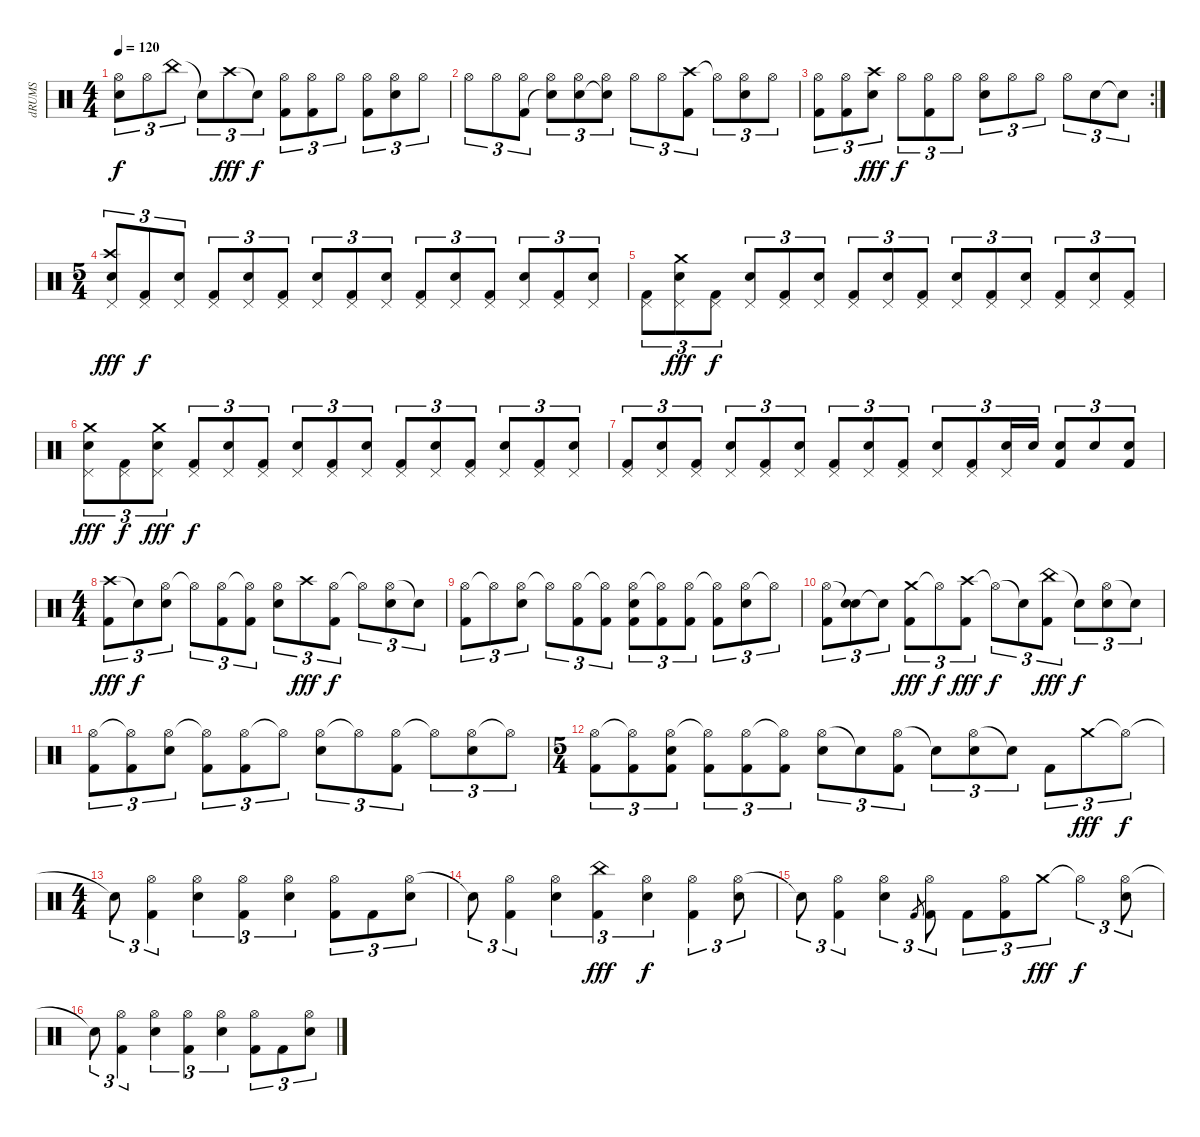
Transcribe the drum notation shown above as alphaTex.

\track ("dRUMS" "dRUMS") {instrument percussion}
\staff {score}
\articulation defaults
\ts (4 4)
\tempo 120
\clef neutral
\ks c
("Hi-Hat (open)" "Electric Snare (hit)").8{tu (3 2) dy f} "Hi-Hat (open)".8{tu (3 2)} "China (hit)".8{tu (3 2)} "Snare (hit)"{t}.8{tu (3 2)} "Crash high (hit)".8{tu (3 2) dy fff} "Snare (hit)"{t}.8{tu (3 2) dy f} ("Hi-Hat (open)" "Kick (hit) 2").8{tu (3 2)} ("Hi-Hat (open)" "Kick (hit) 2").8{tu (3 2)} "Hi-Hat (open)".8{tu (3 2)} ("Hi-Hat (open)" "Kick (hit) 2").8{tu (3 2)} ("Hi-Hat (open)" "Electric Snare (hit)").8{tu (3 2)} "Hi-Hat (open)".8{tu (3 2)} |
"Hi-Hat (open)".8{tu (3 2)} "Hi-Hat (open)".8{tu (3 2)} ("Hi-Hat (open)" "Kick (hit) 2").8{tu (3 2)} ("Hi-Hat (open)" "Snare (hit)"{t}).8{tu (3 2)} ("Hi-Hat (open)" "Electric Snare (hit)").8{tu (3 2)} ("Hi-Hat (open)" "Snare (hit)"{t}).8{tu (3 2)} "Hi-Hat (open)".8{tu (3 2)} "Hi-Hat (open)".8{tu (3 2)} ("Crash high (hit)" "Kick (hit) 2").8{tu (3 2)} "Hi-Hat (open)"{t}.8{tu (3 2)} ("Hi-Hat (open)" "Electric Snare (hit)").8{tu (3 2)} "Hi-Hat (open)".8{tu (3 2)} |
\rc 2
("Hi-Hat (open)" "Kick (hit) 2").8{tu (3 2)} ("Hi-Hat (open)" "Kick (hit) 2").8{tu (3 2)} ("Crash high (hit)" "Electric Snare (hit)").8{tu (3 2) dy fff} "Hi-Hat (open)".8{tu (3 2) dy f} ("Hi-Hat (open)" "Kick (hit) 2").8{tu (3 2)} "Hi-Hat (open)".8{tu (3 2)} ("Hi-Hat (open)" "Electric Snare (hit)").8{tu (3 2)} "Hi-Hat (open)".8{tu (3 2)} "Hi-Hat (open)".8{tu (3 2)} "Hi-Hat (open)".8{tu (3 2)} "Electric Snare (hit)".8{tu (3 2)} "Snare (hit)"{t}.8{tu (3 2)} |
\ts (5 4)
("Crash high (hit)" "Electric Snare (hit)" "Pedal Hi-Hat (hit)").8{tu (3 2) dy fff} ("Pedal Hi-Hat (hit)" "Kick (hit) 2").8{tu (3 2) dy f} ("Electric Snare (hit)" "Pedal Hi-Hat (hit)").8{tu (3 2)} ("Pedal Hi-Hat (hit)" "Kick (hit) 2").8{tu (3 2)} ("Electric Snare (hit)" "Pedal Hi-Hat (hit)").8{tu (3 2)} ("Pedal Hi-Hat (hit)" "Kick (hit) 2").8{tu (3 2)} ("Electric Snare (hit)" "Pedal Hi-Hat (hit)").8{tu (3 2)} ("Pedal Hi-Hat (hit)" "Kick (hit) 2").8{tu (3 2)} ("Electric Snare (hit)" "Pedal Hi-Hat (hit)").8{tu (3 2)} ("Pedal Hi-Hat (hit)" "Kick (hit) 2").8{tu (3 2)} ("Electric Snare (hit)" "Pedal Hi-Hat (hit)").8{tu (3 2)} ("Pedal Hi-Hat (hit)" "Kick (hit) 2").8{tu (3 2)} ("Electric Snare (hit)" "Pedal Hi-Hat (hit)").8{tu (3 2)} ("Pedal Hi-Hat (hit)" "Kick (hit) 2").8{tu (3 2)} ("Electric Snare (hit)" "Pedal Hi-Hat (hit)").8{tu (3 2)} |
("Pedal Hi-Hat (hit)" "Kick (hit) 2").8{tu (3 2)} ("Crash medium (hit)" "Electric Snare (hit)" "Pedal Hi-Hat (hit)").8{tu (3 2) dy fff} ("Pedal Hi-Hat (hit)" "Kick (hit) 2").8{tu (3 2) dy f} ("Electric Snare (hit)" "Pedal Hi-Hat (hit)").8{tu (3 2)} ("Pedal Hi-Hat (hit)" "Kick (hit) 2").8{tu (3 2)} ("Electric Snare (hit)" "Pedal Hi-Hat (hit)").8{tu (3 2)} ("Pedal Hi-Hat (hit)" "Kick (hit) 2").8{tu (3 2)} ("Electric Snare (hit)" "Pedal Hi-Hat (hit)").8{tu (3 2)} ("Pedal Hi-Hat (hit)" "Kick (hit) 2").8{tu (3 2)} ("Electric Snare (hit)" "Pedal Hi-Hat (hit)").8{tu (3 2)} ("Pedal Hi-Hat (hit)" "Kick (hit) 2").8{tu (3 2)} ("Electric Snare (hit)" "Pedal Hi-Hat (hit)").8{tu (3 2)} ("Pedal Hi-Hat (hit)" "Kick (hit) 2").8{tu (3 2)} ("Electric Snare (hit)" "Pedal Hi-Hat (hit)").8{tu (3 2)} ("Pedal Hi-Hat (hit)" "Kick (hit) 2").8{tu (3 2)} |
("Crash medium (hit)" "Electric Snare (hit)" "Pedal Hi-Hat (hit)").8{tu (3 2) dy fff} ("Pedal Hi-Hat (hit)" "Kick (hit) 2").8{tu (3 2) dy f} ("Crash medium (hit)" "Electric Snare (hit)" "Pedal Hi-Hat (hit)").8{tu (3 2) dy fff} ("Pedal Hi-Hat (hit)" "Kick (hit) 2").8{tu (3 2) dy f} ("Electric Snare (hit)" "Pedal Hi-Hat (hit)").8{tu (3 2)} ("Pedal Hi-Hat (hit)" "Kick (hit) 2").8{tu (3 2)} ("Electric Snare (hit)" "Pedal Hi-Hat (hit)").8{tu (3 2)} ("Pedal Hi-Hat (hit)" "Kick (hit) 2").8{tu (3 2)} ("Electric Snare (hit)" "Pedal Hi-Hat (hit)").8{tu (3 2)} ("Pedal Hi-Hat (hit)" "Kick (hit) 2").8{tu (3 2)} ("Electric Snare (hit)" "Pedal Hi-Hat (hit)").8{tu (3 2)} ("Pedal Hi-Hat (hit)" "Kick (hit) 2").8{tu (3 2)} ("Electric Snare (hit)" "Pedal Hi-Hat (hit)").8{tu (3 2)} ("Pedal Hi-Hat (hit)" "Kick (hit) 2").8{tu (3 2)} ("Electric Snare (hit)" "Pedal Hi-Hat (hit)").8{tu (3 2)} |
("Pedal Hi-Hat (hit)" "Kick (hit) 2").8{tu (3 2)} ("Electric Snare (hit)" "Pedal Hi-Hat (hit)").8{tu (3 2)} ("Pedal Hi-Hat (hit)" "Kick (hit) 2").8{tu (3 2)} ("Electric Snare (hit)" "Pedal Hi-Hat (hit)").8{tu (3 2)} ("Pedal Hi-Hat (hit)" "Kick (hit) 2").8{tu (3 2)} ("Electric Snare (hit)" "Pedal Hi-Hat (hit)").8{tu (3 2)} ("Pedal Hi-Hat (hit)" "Kick (hit) 2").8{tu (3 2)} ("Electric Snare (hit)" "Pedal Hi-Hat (hit)").8{tu (3 2)} ("Pedal Hi-Hat (hit)" "Kick (hit) 2").8{tu (3 2)} ("Electric Snare (hit)" "Pedal Hi-Hat (hit)").8{tu (3 2)} ("Pedal Hi-Hat (hit)" "Kick (hit) 2").8{tu (3 2)} ("Electric Snare (hit)" "Pedal Hi-Hat (hit)").16{tu (3 2)} "Electric Snare (hit)".16{tu (3 2)} ("Electric Snare (hit)" "Kick (hit) 2").8{tu (3 2)} "Electric Snare (hit)".8{tu (3 2)} ("Electric Snare (hit)" "Kick (hit) 2").8{tu (3 2)} |
\ts (4 4)
("Crash high (hit)" "Kick (hit) 2").8{tu (3 2) dy fff} "Snare (hit)"{t}.8{tu (3 2) dy f} ("Hi-Hat (open)" "Electric Snare (hit)").8{tu (3 2)} "Hi-Hat (open)"{t}.8{tu (3 2)} ("Hi-Hat (open)" "Kick (hit) 2").8{tu (3 2)} ("Hi-Hat (open)"{t} "Kick (hit) 2").8{tu (3 2)} ("Hi-Hat (open)" "Electric Snare (hit)").8{tu (3 2)} "Crash high (hit)".8{tu (3 2) dy fff} ("Hi-Hat (open)" "Kick (hit) 2").8{tu (3 2) dy f} "Hi-Hat (open)"{t}.8{tu (3 2)} ("Hi-Hat (open)" "Electric Snare (hit)").8{tu (3 2)} "Snare (hit)"{t}.8{tu (3 2)} |
("Hi-Hat (open)" "Kick (hit) 2").8{tu (3 2)} "Hi-Hat (open)"{t}.8{tu (3 2)} ("Hi-Hat (open)" "Electric Snare (hit)").8{tu (3 2)} "Hi-Hat (open)"{t}.8{tu (3 2)} ("Hi-Hat (open)" "Kick (hit) 2").8{tu (3 2)} ("Hi-Hat (open)"{t} "Kick (hit) 2").8{tu (3 2)} ("Hi-Hat (open)" "Electric Snare (hit)" "Kick (hit) 2").8{tu (3 2)} ("Hi-Hat (open)"{t} "Kick (hit) 2").8{tu (3 2)} ("Hi-Hat (open)" "Kick (hit) 2").8{tu (3 2)} ("Hi-Hat (open)"{t} "Kick (hit) 2").8{tu (3 2)} ("Hi-Hat (open)" "Electric Snare (hit)").8{tu (3 2)} "Hi-Hat (open)"{t}.8{tu (3 2)} |
("Hi-Hat (open)" "Kick (hit) 2").8{tu (3 2)} ("Snare (hit)"{t} "Electric Snare (hit)").8{tu (3 2)} "Snare (hit)"{t}.8{tu (3 2)} ("Crash medium (hit)" "Kick (hit) 2").8{tu (3 2) dy fff} "Hi-Hat (open)"{t}.8{tu (3 2) dy f} ("Crash high (hit)" "Kick (hit) 2").8{tu (3 2) dy fff} "Hi-Hat (open)"{t}.8{tu (3 2) dy f} "Snare (hit)"{t}.8{tu (3 2)} ("China (hit)" "Kick (hit) 2").8{tu (3 2) dy fff} "Snare (hit)"{t}.8{tu (3 2) dy f} ("Hi-Hat (open)" "Electric Snare (hit)").8{tu (3 2)} "Snare (hit)"{t}.8{tu (3 2)} |
("Hi-Hat (open)" "Kick (hit) 2").8{tu (3 2)} ("Hi-Hat (open)"{t} "Kick (hit) 2").8{tu (3 2)} ("Hi-Hat (open)" "Electric Snare (hit)").8{tu (3 2)} ("Hi-Hat (open)"{t} "Kick (hit) 2").8{tu (3 2)} ("Hi-Hat (open)" "Kick (hit) 2").8{tu (3 2)} "Hi-Hat (open)"{t}.8{tu (3 2)} ("Hi-Hat (open)" "Electric Snare (hit)").8{tu (3 2)} "Hi-Hat (open)"{t}.8{tu (3 2)} ("Hi-Hat (open)" "Kick (hit) 2").8{tu (3 2)} "Hi-Hat (open)"{t}.8{tu (3 2)} ("Hi-Hat (open)" "Electric Snare (hit)").8{tu (3 2)} "Hi-Hat (open)"{t}.8{tu (3 2)} |
\ts (5 4)
("Hi-Hat (open)" "Kick (hit) 2").8{tu (3 2)} ("Hi-Hat (open)"{t} "Kick (hit) 2").8{tu (3 2)} ("Hi-Hat (open)" "Electric Snare (hit)" "Kick (hit) 2").8{tu (3 2)} ("Hi-Hat (open)"{t} "Kick (hit) 2").8{tu (3 2)} ("Hi-Hat (open)" "Kick (hit) 2").8{tu (3 2)} ("Hi-Hat (open)"{t} "Kick (hit) 2").8{tu (3 2)} ("Hi-Hat (open)" "Electric Snare (hit)").8{tu (3 2)} "Snare (hit)"{t}.8{tu (3 2)} ("Hi-Hat (open)" "Kick (hit) 2").8{tu (3 2)} "Snare (hit)"{t}.8{tu (3 2)} ("Hi-Hat (open)" "Electric Snare (hit)").8{tu (3 2)} "Snare (hit)"{t}.8{tu (3 2)} "Kick (hit) 2".8{tu (3 2)} "Crash medium (hit)".8{tu (3 2) dy fff} "Hi-Hat (open)"{t}.8{tu (3 2) dy f} |
\ts (4 4)
"Snare (hit)"{t}.8{tu (3 2)} ("Hi-Hat (open)" "Kick (hit) 2").4{tu (3 2)} ("Hi-Hat (open)" "Electric Snare (hit)").4{tu (3 2)} ("Hi-Hat (open)" "Kick (hit) 2").4{tu (3 2)} ("Hi-Hat (open)" "Electric Snare (hit)").4{tu (3 2)} ("Hi-Hat (open)" "Kick (hit) 2").8{tu (3 2)} "Kick (hit) 2".8{tu (3 2)} ("Hi-Hat (open)" "Electric Snare (hit)").8{tu (3 2)} |
"Snare (hit)"{t}.8{tu (3 2)} ("Hi-Hat (open)" "Kick (hit) 2").4{tu (3 2)} ("Hi-Hat (open)" "Electric Snare (hit)").4{tu (3 2)} ("China (hit)" "Kick (hit) 2").4{tu (3 2) dy fff} ("Hi-Hat (open)" "Electric Snare (hit)").4{tu (3 2) dy f} ("Hi-Hat (open)" "Kick (hit) 2").4{tu (3 2)} ("Hi-Hat (open)" "Electric Snare (hit)").8{tu (3 2)} |
"Snare (hit)"{t}.8{tu (3 2)} ("Hi-Hat (open)" "Kick (hit) 2").4{tu (3 2)} ("Hi-Hat (open)" "Electric Snare (hit)").4{tu (3 2)} "Kick (hit) 2".8{gr} ("Hi-Hat (open)" "Kick (hit) 2").8{tu (3 2)} "Kick (hit) 2".8{tu (3 2)} ("Hi-Hat (open)" "Kick (hit) 2").8{tu (3 2)} "Crash medium (hit)".8{tu (3 2) dy fff} "Hi-Hat (open)"{t}.4{tu (3 2) dy f} ("Hi-Hat (open)" "Electric Snare (hit)").8{tu (3 2)} |
"Snare (hit)"{t}.8{tu (3 2)} ("Hi-Hat (open)" "Kick (hit) 2").4{tu (3 2)} ("Hi-Hat (open)" "Electric Snare (hit)").4{tu (3 2)} ("Hi-Hat (open)" "Kick (hit) 2").4{tu (3 2)} ("Hi-Hat (open)" "Electric Snare (hit)").4{tu (3 2)} ("Hi-Hat (open)" "Kick (hit) 2").8{tu (3 2)} "Kick (hit) 2".8{tu (3 2)} ("Hi-Hat (open)" "Electric Snare (hit)").8{tu (3 2)}
